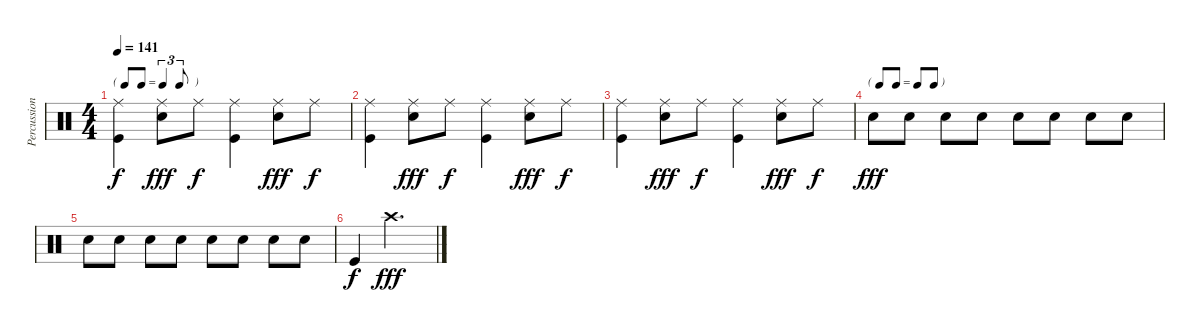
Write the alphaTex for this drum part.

\track ("Percussions" "Percussion") {mute instrument percussion}
\staff {score}
\articulation defaults
\ts (4 4)
\tf triplet8th
\tempo 141
\clef neutral
\ks c
("Kick (hit)" "Ride (middle)").4{dy f} ("Snare (hit) 2" "Ride (middle)").8{dy fff} "Ride (middle)".8{dy f} ("Kick (hit)" "Ride (middle)").4 ("Snare (hit) 2" "Ride (middle)").8{dy fff} "Ride (middle)".8{dy f} |
("Kick (hit)" "Ride (middle)").4 ("Snare (hit) 2" "Ride (middle)").8{dy fff} "Ride (middle)".8{dy f} ("Kick (hit)" "Ride (middle)").4 ("Snare (hit) 2" "Ride (middle)").8{dy fff} "Ride (middle)".8{dy f} |
("Kick (hit)" "Ride (middle)").4 ("Snare (hit) 2" "Ride (middle)").8{dy fff} "Ride (middle)".8{dy f} ("Kick (hit)" "Ride (middle)").4 ("Snare (hit) 2" "Ride (middle)").8{dy fff} "Ride (middle)".8{dy f} |
\tf none "Snare (hit) 2".8{dy fff} "Snare (hit) 2".8 "Snare (hit) 2".8 "Snare (hit) 2".8 "Snare (hit) 2".8 "Snare (hit) 2".8 "Snare (hit) 2".8 "Snare (hit) 2".8
|
"Snare (hit) 2".8 "Snare (hit) 2".8 "Snare (hit) 2".8 "Snare (hit) 2".8 "Snare (hit) 2".8 "Snare (hit) 2".8 "Snare (hit) 2".8 "Snare (hit) 2".8 |
"Kick (hit)".4{dy f} "Crash high (hit)".2{d dy fff}
